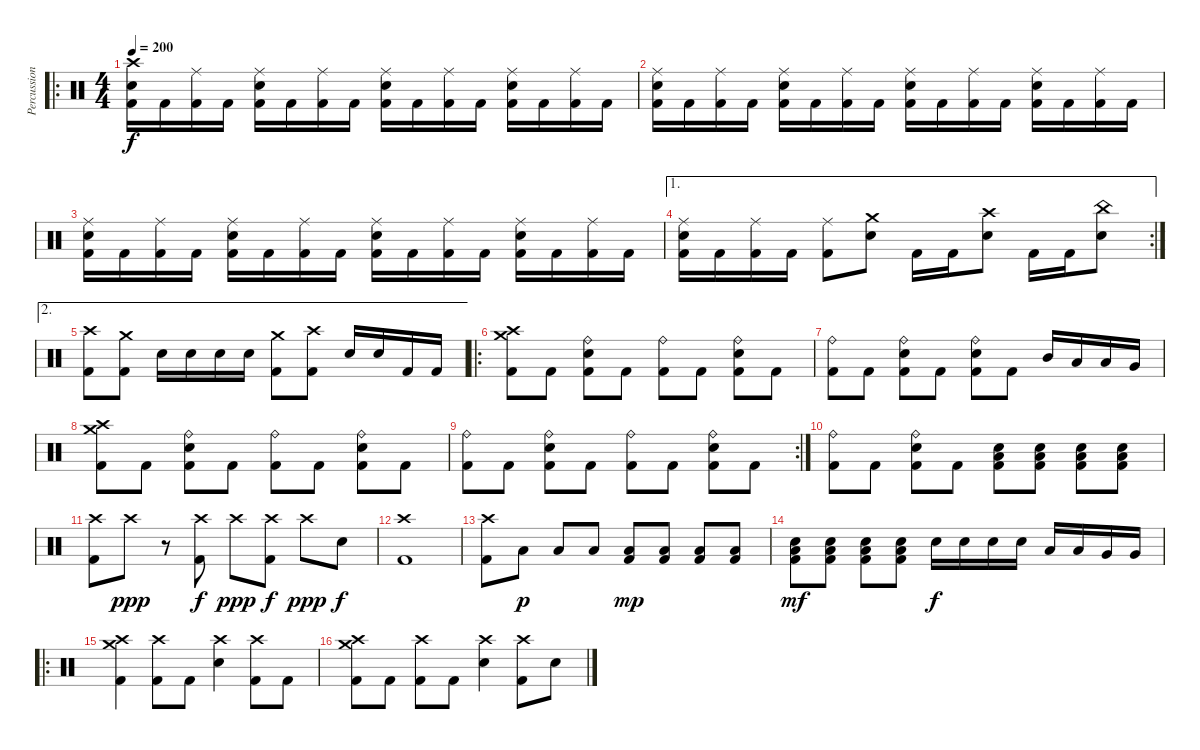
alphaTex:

\track ("Percussions" "Percussion") {instrument percussion}
\staff {score}
\articulation defaults
\ro
\ts (4 4)
\tempo 200
\clef neutral
\ks c
("Crash high (hit)" "Snare (hit) 2" "Kick (hit) 2").16{dy f} "Kick (hit) 2".16 ("Ride (middle)" "Kick (hit) 2").16 "Kick (hit) 2".16 ("Ride (middle)" "Snare (hit) 2" "Kick (hit) 2").16 "Kick (hit) 2".16 ("Ride (middle)" "Kick (hit) 2").16 "Kick (hit) 2".16 ("Ride (middle)" "Snare (hit) 2" "Kick (hit) 2").16 "Kick (hit) 2".16 ("Ride (middle)" "Kick (hit) 2").16 "Kick (hit) 2".16 ("Ride (middle)" "Snare (hit) 2" "Kick (hit) 2").16 "Kick (hit) 2".16 ("Ride (middle)" "Kick (hit) 2").16 "Kick (hit) 2".16 |
("Ride (middle)" "Snare (hit) 2" "Kick (hit) 2").16 "Kick (hit) 2".16 ("Ride (middle)" "Kick (hit) 2").16 "Kick (hit) 2".16 ("Ride (middle)" "Snare (hit) 2" "Kick (hit) 2").16 "Kick (hit) 2".16 ("Ride (middle)" "Kick (hit) 2").16 "Kick (hit) 2".16 ("Ride (middle)" "Snare (hit) 2" "Kick (hit) 2").16 "Kick (hit) 2".16 ("Ride (middle)" "Kick (hit) 2").16 "Kick (hit) 2".16 ("Ride (middle)" "Snare (hit) 2" "Kick (hit) 2").16 "Kick (hit) 2".16 ("Ride (middle)" "Kick (hit) 2").16 "Kick (hit) 2".16 |
("Ride (middle)" "Snare (hit) 2" "Kick (hit) 2").16 "Kick (hit) 2".16 ("Ride (middle)" "Kick (hit) 2").16 "Kick (hit) 2".16 ("Ride (middle)" "Snare (hit) 2" "Kick (hit) 2").16 "Kick (hit) 2".16 ("Ride (middle)" "Kick (hit) 2").16 "Kick (hit) 2".16 ("Ride (middle)" "Snare (hit) 2" "Kick (hit) 2").16 "Kick (hit) 2".16 ("Ride (middle)" "Kick (hit) 2").16 "Kick (hit) 2".16 ("Ride (middle)" "Snare (hit) 2" "Kick (hit) 2").16 "Kick (hit) 2".16 ("Ride (middle)" "Kick (hit) 2").16 "Kick (hit) 2".16 |
\ae 1
\rc 2
("Ride (middle)" "Snare (hit) 2" "Kick (hit) 2").16 "Kick (hit) 2".16 ("Ride (middle)" "Kick (hit) 2").16 "Kick (hit) 2".16 ("Ride (middle)" "Kick (hit) 2").8 ("Crash medium (hit)" "Snare (hit) 2").8 "Kick (hit) 2".16 "Kick (hit) 2".16 ("Crash high (hit)" "Snare (hit) 2").8 "Kick (hit) 2".16 "Kick (hit) 2".16 ("China (hit)" "Snare (hit) 2").8 |
\ae 2
("Crash high (hit)" "Kick (hit) 2").8 ("Crash medium (hit)" "Kick (hit) 2").8 "Snare (hit) 2".16 "Snare (hit) 2".16 "Snare (hit) 2".16 "Snare (hit) 2".16 ("Crash medium (hit)" "Kick (hit) 2").8 ("Crash high (hit)" "Kick (hit) 2").8 "Snare (hit) 2".16 "Snare (hit) 2".16 "Kick (hit) 2".16 "Kick (hit) 2".16 |
\ro
("Crash high (hit)" "Crash medium (hit)" "Kick (hit) 2").8 "Kick (hit) 2".8 ("Ride (bell)" "Snare (hit) 2" "Kick (hit) 2").8 "Kick (hit) 2".8 ("Ride (bell)" "Kick (hit) 2").8 "Kick (hit) 2".8 ("Ride (bell)" "Snare (hit) 2" "Kick (hit) 2").8 "Kick (hit) 2".8 |
("Ride (bell)" "Kick (hit) 2").8 "Kick (hit) 2".8 ("Ride (bell)" "Snare (hit) 2" "Kick (hit) 2").8 "Kick (hit) 2".8 ("Ride (bell)" "Snare (hit) 2" "Kick (hit) 2").8 "Kick (hit) 2".8 "Mid Tom (hit)".16 "Low Tom (hit)".16 "Low Tom (hit)".16 "Very Low Tom (hit)".16 |
("Crash high (hit)" "Crash medium (hit)" "Kick (hit) 2").8 "Kick (hit) 2".8 ("Ride (bell)" "Snare (hit) 2" "Kick (hit) 2").8 "Kick (hit) 2".8 ("Ride (bell)" "Kick (hit) 2").8 "Kick (hit) 2".8 ("Ride (bell)" "Snare (hit) 2" "Kick (hit) 2").8 "Kick (hit) 2".8 |
\rc 2
("Ride (bell)" "Kick (hit) 2").8 "Kick (hit) 2".8 ("Ride (bell)" "Snare (hit) 2" "Kick (hit) 2").8 "Kick (hit) 2".8 ("Ride (bell)" "Kick (hit) 2").8 "Kick (hit) 2".8 ("Ride (bell)" "Snare (hit) 2" "Kick (hit) 2").8 "Kick (hit) 2".8 |
("Ride (bell)" "Kick (hit) 2").8 "Kick (hit) 2".8 ("Ride (bell)" "Snare (hit) 2" "Kick (hit) 2").8 "Kick (hit) 2".8 ("Low Floor Tom (hit)" "Snare (hit) 2" "Kick (hit) 2").8 ("Low Floor Tom (hit)" "Snare (hit) 2" "Kick (hit) 2").8 ("Low Floor Tom (hit)" "Snare (hit) 2" "Kick (hit) 2").8 ("Low Floor Tom (hit)" "Snare (hit) 2" "Kick (hit) 2").8 |
("Crash high (hit)" "Kick (hit) 2").8 "Crash high (hit)".8{dy ppp} r.8 ("Crash high (hit)" "Kick (hit) 2").8{dy f} "Crash high (hit)".8{dy ppp} ("Crash high (hit)" "Kick (hit) 2").8{dy f} "Crash high (hit)".8{dy ppp} "Snare (hit) 2".8{dy f} |
("Crash high (hit)" "Kick (hit) 2").1 |
("Crash high (hit)" "Kick (hit) 2").8 "Low Floor Tom (hit)".8{dy p} "Low Floor Tom (hit)".8 "Low Floor Tom (hit)".8 ("Low Floor Tom (hit)" "Kick (hit) 2").8{dy mp} ("Low Floor Tom (hit)" "Kick (hit) 2").8 ("Low Floor Tom (hit)" "Kick (hit) 2").8 ("Low Floor Tom (hit)" "Kick (hit) 2").8 |
("Snare (hit) 2" "Low Floor Tom (hit)" "Kick (hit) 2").8{dy mf} ("Snare (hit) 2" "Low Floor Tom (hit)" "Kick (hit) 2").8 ("Snare (hit) 2" "Low Floor Tom (hit)" "Kick (hit) 2").8 ("Snare (hit) 2" "Low Floor Tom (hit)" "Kick (hit) 2").8 "Snare (hit) 2".16{dy f} "Snare (hit) 2".16 "Snare (hit) 2".16 "Snare (hit) 2".16 "Low Tom (hit)".16 "Low Tom (hit)".16 "Very Low Tom (hit)".16 "Very Low Tom (hit)".16 |
\ro
("Crash high (hit)" "Crash medium (hit)" "Kick (hit) 2").4 ("Crash high (hit)" "Kick (hit) 2").8 "Kick (hit) 2".8 ("Crash high (hit)" "Snare (hit) 2").4 ("Crash high (hit)" "Kick (hit) 2").8 "Kick (hit) 2".8 |
("Crash high (hit)" "Crash medium (hit)" "Kick (hit) 2").8 "Kick (hit) 2".8 ("Crash high (hit)" "Kick (hit) 2").8 "Kick (hit) 2".8 ("Crash high (hit)" "Snare (hit) 2").4 ("Crash high (hit)" "Kick (hit) 2").8 "Snare (hit) 2".8
